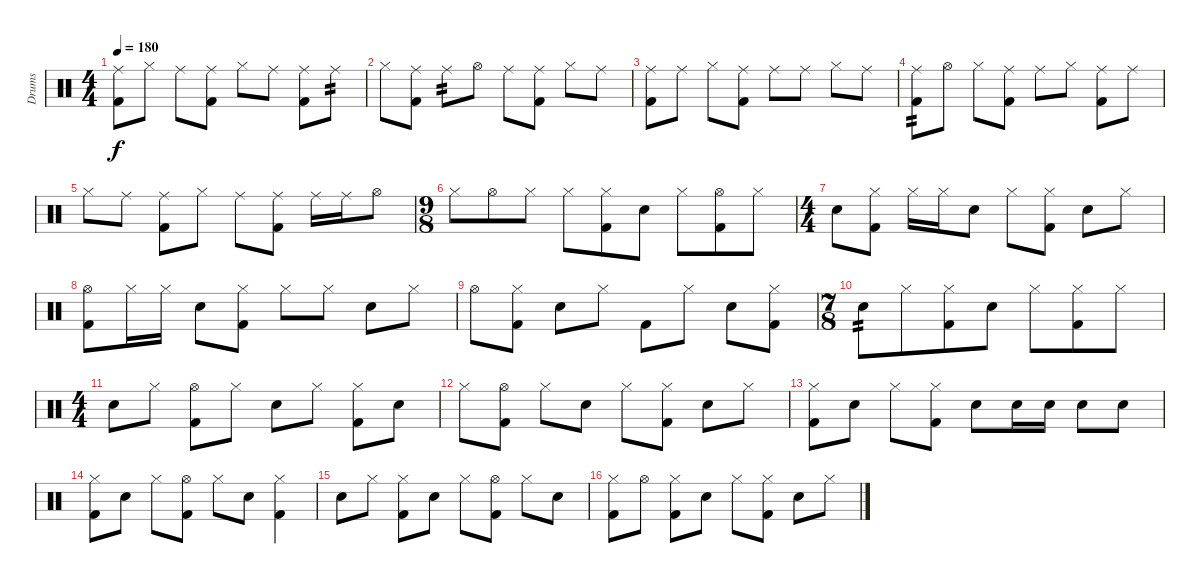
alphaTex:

\track ("Drums" "Drums") {instrument percussion}
\staff {score}
\articulation defaults
\ts (4 4)
\tempo 180
\clef neutral
\ks c
("Ride (middle)" "Kick (hit) 2").8{dy f} "Hi-Hat (closed)".8 "Ride (middle)".8 ("Ride (middle)" "Kick (hit) 2").8 "Hi-Hat (closed)".8 "Ride (middle)".8 ("Ride (middle)" "Kick (hit) 2").8 "Ride (middle)".8{tp 2} |
"Hi-Hat (closed)".8 ("Ride (middle)" "Kick (hit) 2").8 "Ride (middle)".8{tp 2} "Hi-Hat (open)".8 "Ride (middle)".8 ("Ride (middle)" "Kick (hit) 2").8 "Hi-Hat (closed)".8 "Ride (middle)".8 |
("Ride (middle)" "Kick (hit) 2").8 "Ride (middle)".8 "Hi-Hat (closed)".8 ("Ride (middle)" "Kick (hit) 2").8 "Ride (middle)".8 "Ride (middle)".8 "Hi-Hat (closed)".8 "Ride (middle)".8 |
("Ride (middle)" "Kick (hit) 2").8{tp 2} "Hi-Hat (open)".8 "Hi-Hat (closed)".8 ("Ride (middle)" "Kick (hit) 2").8 "Ride (middle)".8 "Hi-Hat (closed)".8 ("Ride (middle)" "Kick (hit) 2").8 "Ride (middle)".8 |
"Hi-Hat (closed)".8 "Ride (middle)".8 ("Ride (middle)" "Kick (hit) 2").8 "Hi-Hat (closed)".8 "Ride (middle)".8 ("Ride (middle)" "Kick (hit) 2").8 "Ride (middle)".16 "Ride (middle)".16 "Hi-Hat (open)".8 |
\ts (9 8)
"Hi-Hat (closed)".8 "Hi-Hat (open)".8 "Hi-Hat (closed)".8 "Hi-Hat (closed)".8 ("Hi-Hat (closed)" "Kick (hit) 2").8 "Electric Snare (hit)".8 "Hi-Hat (closed)".8 ("Hi-Hat (open)" "Kick (hit) 2").8 "Hi-Hat (closed)".8 |
\ts (4 4)
"Electric Snare (hit)".8 ("Hi-Hat (closed)" "Kick (hit) 2").8 "Hi-Hat (closed)".16 "Hi-Hat (closed)".16 "Electric Snare (hit)".8 "Hi-Hat (closed)".8 ("Hi-Hat (closed)" "Kick (hit) 2").8 "Electric Snare (hit)".8 "Hi-Hat (closed)".8 |
("Hi-Hat (open)" "Kick (hit) 2").8 "Hi-Hat (closed)".16 "Hi-Hat (closed)".16 "Electric Snare (hit)".8 ("Hi-Hat (closed)" "Kick (hit) 2").8 "Hi-Hat (closed)".8 "Hi-Hat (closed)".8 "Electric Snare (hit)".8 "Hi-Hat (closed)".8 |
"Hi-Hat (open)".8 ("Hi-Hat (closed)" "Kick (hit) 2").8 "Electric Snare (hit)".8 "Hi-Hat (closed)".8 "Kick (hit) 2".8 "Hi-Hat (closed)".8 "Electric Snare (hit)".8 ("Hi-Hat (closed)" "Kick (hit) 2").8 |
\ts (7 8)
"Electric Snare (hit)".8{tp 2} "Hi-Hat (closed)".8 ("Hi-Hat (closed)" "Kick (hit) 2").8 "Electric Snare (hit)".8 "Hi-Hat (closed)".8 ("Hi-Hat (closed)" "Kick (hit) 2").8 "Hi-Hat (closed)".8 |
\ts (4 4)
"Electric Snare (hit)".8 "Hi-Hat (closed)".8 ("Hi-Hat (open)" "Kick (hit) 2").8 "Hi-Hat (closed)".8 "Electric Snare (hit)".8 "Hi-Hat (closed)".8 ("Hi-Hat (closed)" "Kick (hit) 2").8 "Electric Snare (hit)".8 |
"Hi-Hat (closed)".8 ("Hi-Hat (open)" "Kick (hit) 2").8 "Hi-Hat (closed)".8 "Electric Snare (hit)".8 "Hi-Hat (closed)".8 ("Hi-Hat (closed)" "Kick (hit) 2").8 "Electric Snare (hit)".8 "Hi-Hat (closed)".8 |
("Hi-Hat (closed)" "Kick (hit) 2").8 "Electric Snare (hit)".8 "Hi-Hat (closed)".8 ("Hi-Hat (closed)" "Kick (hit) 2").8 "Electric Snare (hit)".8 "Electric Snare (hit)".16 "Electric Snare (hit)".16 "Electric Snare (hit)".8 "Electric Snare (hit)".8 |
("Hi-Hat (closed)" "Kick (hit) 2").8 "Electric Snare (hit)".8 "Hi-Hat (closed)".8 ("Hi-Hat (open)" "Kick (hit) 2").8 "Hi-Hat (closed)".8 "Electric Snare (hit)".8 ("Hi-Hat (closed)" "Kick (hit) 2").4 |
"Electric Snare (hit)".8 "Hi-Hat (closed)".8 ("Hi-Hat (closed)" "Kick (hit) 2").8 "Electric Snare (hit)".8 "Hi-Hat (closed)".8 ("Hi-Hat (open)" "Kick (hit) 2").8 "Hi-Hat (closed)".8 "Electric Snare (hit)".8 |
("Hi-Hat (closed)" "Kick (hit) 2").8 "Hi-Hat (open)".8 ("Hi-Hat (closed)" "Kick (hit) 2").8 "Electric Snare (hit)".8 "Hi-Hat (closed)".8 ("Hi-Hat (closed)" "Kick (hit) 2").8 "Electric Snare (hit)".8 "Hi-Hat (closed)".8
